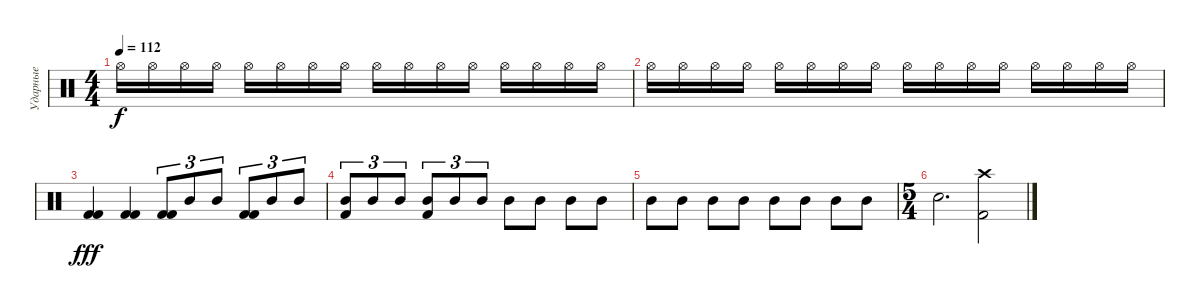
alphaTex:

\track ("Ударные" "Ударные") {instrument percussion}
\staff {score}
\articulation defaults
\ts (4 4)
\tempo 112
\clef neutral
\ks c "Hi-Hat (open)".16{dy f} "Hi-Hat (open)".16 "Hi-Hat (open)".16 "Hi-Hat (open)".16 "Hi-Hat (open)".16 "Hi-Hat (open)".16 "Hi-Hat (open)".16 "Hi-Hat (open)".16 "Hi-Hat (open)".16 "Hi-Hat (open)".16 "Hi-Hat (open)".16 "Hi-Hat (open)".16 "Hi-Hat (open)".16 "Hi-Hat (open)".16 "Hi-Hat (open)".16 "Hi-Hat (open)".16
|
"Hi-Hat (open)".16 "Hi-Hat (open)".16 "Hi-Hat (open)".16 "Hi-Hat (open)".16 "Hi-Hat (open)".16 "Hi-Hat (open)".16 "Hi-Hat (open)".16 "Hi-Hat (open)".16 "Hi-Hat (open)".16 "Hi-Hat (open)".16 "Hi-Hat (open)".16 "Hi-Hat (open)".16 "Hi-Hat (open)".16 "Hi-Hat (open)".16 "Hi-Hat (open)".16 "Hi-Hat (open)".16 |
("Kick (hit) 2" "Kick (hit) 2").4{dy fff} ("Kick (hit) 2" "Kick (hit) 2").4 ("Kick (hit) 2" "Kick (hit) 2").8{tu (3 2)} "Mid Tom (hit)".8{tu (3 2)} "Mid Tom (hit)".8{tu (3 2)} ("Kick (hit) 2" "Kick (hit) 2").8{tu (3 2)} "Mid Tom (hit)".8{tu (3 2)} "Mid Tom (hit)".8{tu (3 2)} |
("Kick (hit) 2" "Mid Tom (hit)").8{tu (3 2)} "Mid Tom (hit)".8{tu (3 2)} "Mid Tom (hit)".8{tu (3 2)} ("Kick (hit) 2" "Mid Tom (hit)").8{tu (3 2)} "Mid Tom (hit)".8{tu (3 2)} "Mid Tom (hit)".8{tu (3 2)} "Mid Tom (hit)".8 "Mid Tom (hit)".8 "Mid Tom (hit)".8 "Mid Tom (hit)".8 |
"Mid Tom (hit)".8 "Mid Tom (hit)".8 "Mid Tom (hit)".8 "Mid Tom (hit)".8 "Mid Tom (hit)".8 "Mid Tom (hit)".8 "Mid Tom (hit)".8 "Mid Tom (hit)".8 |
\ts (5 4)
"Snare (hit) 2".2{d} ("Kick (hit) 2" "Crash high (hit)").2
